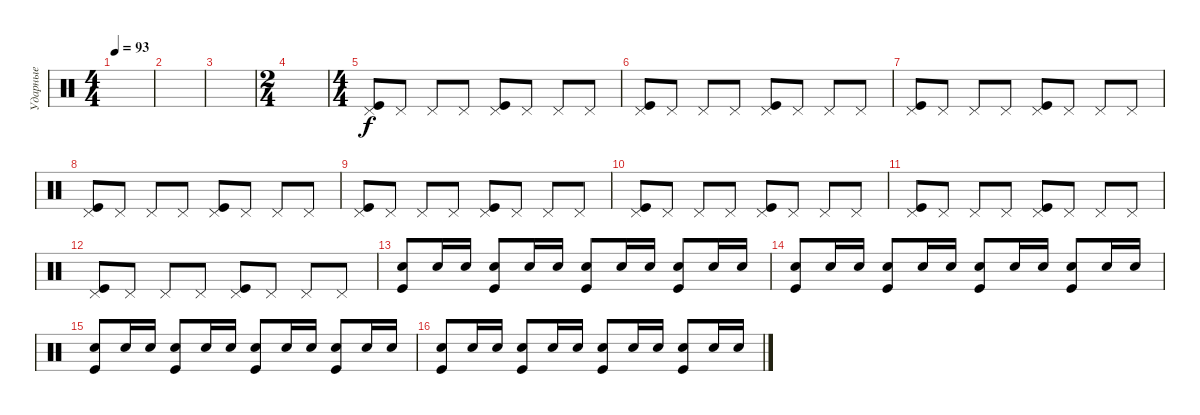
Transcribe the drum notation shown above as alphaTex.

\track ("Ударные" "Ударные") {instrument percussion}
\staff {score}
\articulation defaults
\ts (4 4)
\tempo 93
\clef neutral
\ks c
|
|
|
\ts (2 4)
|
\ts (4 4)
("Kick (hit)" "Pedal Hi-Hat (hit)").8 "Pedal Hi-Hat (hit)".8 "Pedal Hi-Hat (hit)".8 "Pedal Hi-Hat (hit)".8 ("Kick (hit)" "Pedal Hi-Hat (hit)").8 "Pedal Hi-Hat (hit)".8 "Pedal Hi-Hat (hit)".8 "Pedal Hi-Hat (hit)".8 |
("Kick (hit)" "Pedal Hi-Hat (hit)").8 "Pedal Hi-Hat (hit)".8 "Pedal Hi-Hat (hit)".8 "Pedal Hi-Hat (hit)".8 ("Kick (hit)" "Pedal Hi-Hat (hit)").8 "Pedal Hi-Hat (hit)".8 "Pedal Hi-Hat (hit)".8 "Pedal Hi-Hat (hit)".8 |
("Kick (hit)" "Pedal Hi-Hat (hit)").8 "Pedal Hi-Hat (hit)".8 "Pedal Hi-Hat (hit)".8 "Pedal Hi-Hat (hit)".8 ("Kick (hit)" "Pedal Hi-Hat (hit)").8 "Pedal Hi-Hat (hit)".8 "Pedal Hi-Hat (hit)".8 "Pedal Hi-Hat (hit)".8 |
("Kick (hit)" "Pedal Hi-Hat (hit)").8 "Pedal Hi-Hat (hit)".8 "Pedal Hi-Hat (hit)".8 "Pedal Hi-Hat (hit)".8 ("Kick (hit)" "Pedal Hi-Hat (hit)").8 "Pedal Hi-Hat (hit)".8 "Pedal Hi-Hat (hit)".8 "Pedal Hi-Hat (hit)".8 |
("Kick (hit)" "Pedal Hi-Hat (hit)").8 "Pedal Hi-Hat (hit)".8 "Pedal Hi-Hat (hit)".8 "Pedal Hi-Hat (hit)".8 ("Kick (hit)" "Pedal Hi-Hat (hit)").8 "Pedal Hi-Hat (hit)".8 "Pedal Hi-Hat (hit)".8 "Pedal Hi-Hat (hit)".8 |
("Kick (hit)" "Pedal Hi-Hat (hit)").8 "Pedal Hi-Hat (hit)".8 "Pedal Hi-Hat (hit)".8 "Pedal Hi-Hat (hit)".8 ("Kick (hit)" "Pedal Hi-Hat (hit)").8 "Pedal Hi-Hat (hit)".8 "Pedal Hi-Hat (hit)".8 "Pedal Hi-Hat (hit)".8 |
("Kick (hit)" "Pedal Hi-Hat (hit)").8 "Pedal Hi-Hat (hit)".8 "Pedal Hi-Hat (hit)".8 "Pedal Hi-Hat (hit)".8 ("Kick (hit)" "Pedal Hi-Hat (hit)").8 "Pedal Hi-Hat (hit)".8 "Pedal Hi-Hat (hit)".8 "Pedal Hi-Hat (hit)".8 |
("Kick (hit)" "Pedal Hi-Hat (hit)").8 "Pedal Hi-Hat (hit)".8 "Pedal Hi-Hat (hit)".8 "Pedal Hi-Hat (hit)".8 ("Kick (hit)" "Pedal Hi-Hat (hit)").8 "Pedal Hi-Hat (hit)".8 "Pedal Hi-Hat (hit)".8 "Pedal Hi-Hat (hit)".8 |
("Electric Snare (hit)" "Kick (hit)").8 "Electric Snare (hit)".16 "Electric Snare (hit)".16 ("Electric Snare (hit)" "Kick (hit)").8 "Electric Snare (hit)".16 "Electric Snare (hit)".16 ("Electric Snare (hit)" "Kick (hit)").8 "Electric Snare (hit)".16 "Electric Snare (hit)".16 ("Electric Snare (hit)" "Kick (hit)").8 "Electric Snare (hit)".16 "Electric Snare (hit)".16 |
("Electric Snare (hit)" "Kick (hit)").8 "Electric Snare (hit)".16 "Electric Snare (hit)".16 ("Electric Snare (hit)" "Kick (hit)").8 "Electric Snare (hit)".16 "Electric Snare (hit)".16 ("Electric Snare (hit)" "Kick (hit)").8 "Electric Snare (hit)".16 "Electric Snare (hit)".16 ("Electric Snare (hit)" "Kick (hit)").8 "Electric Snare (hit)".16 "Electric Snare (hit)".16 |
("Electric Snare (hit)" "Kick (hit)").8 "Electric Snare (hit)".16 "Electric Snare (hit)".16 ("Electric Snare (hit)" "Kick (hit)").8 "Electric Snare (hit)".16 "Electric Snare (hit)".16 ("Electric Snare (hit)" "Kick (hit)").8 "Electric Snare (hit)".16 "Electric Snare (hit)".16 ("Electric Snare (hit)" "Kick (hit)").8 "Electric Snare (hit)".16 "Electric Snare (hit)".16 |
("Electric Snare (hit)" "Kick (hit)").8 "Electric Snare (hit)".16 "Electric Snare (hit)".16 ("Electric Snare (hit)" "Kick (hit)").8 "Electric Snare (hit)".16 "Electric Snare (hit)".16 ("Electric Snare (hit)" "Kick (hit)").8 "Electric Snare (hit)".16 "Electric Snare (hit)".16 ("Electric Snare (hit)" "Kick (hit)").8 "Electric Snare (hit)".16 "Electric Snare (hit)".16
